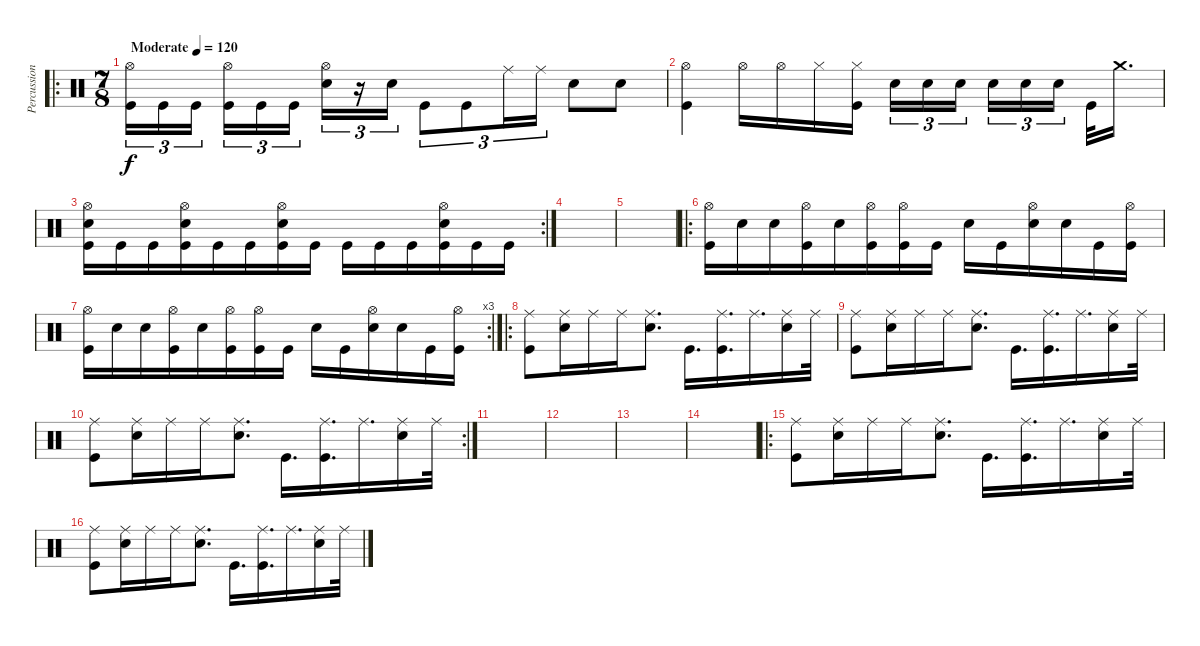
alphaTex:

\track ("Percussion" "Percussion") {instrument percussion}
\staff {score}
\articulation defaults
\ro
\ts (7 8)
\tempo (120 "Moderate")
\clef neutral
\ks c
("Hi-Hat (open)" "Kick (hit)").16{tu (3 2) dy f} "Kick (hit)".16{tu (3 2)} "Kick (hit)".16{tu (3 2)} ("Hi-Hat (open)" "Kick (hit)").16{tu (3 2)} "Kick (hit)".16{tu (3 2)} "Kick (hit)".16{tu (3 2)} ("Hi-Hat (open)" "Snare (hit) 2").16{tu (3 2)} r.16{tu (3 2)} "Snare (hit) 2".16{tu (3 2)} "Kick (hit)".8{tu (3 2)} "Kick (hit)".8{tu (3 2)} "Ride (middle)".16{tu (3 2)} "Ride (middle)".16{tu (3 2)} "Snare (hit) 2".8 "Snare (hit) 2".8 |
("Hi-Hat (open)" "Kick (hit)").4 "Hi-Hat (open)".16 "Hi-Hat (open)".16 "Hi-Hat (closed)".16 ("Hi-Hat (closed)" "Kick (hit)").16 "Snare (hit) 2".16{tu (3 2)} "Snare (hit) 2".16{tu (3 2)} "Snare (hit) 2".16{tu (3 2)} "Snare (hit) 2".16{tu (3 2)} "Snare (hit) 2".16{tu (3 2)} "Snare (hit) 2".16{tu (3 2)} "Kick (hit)".32 "Crash medium (hit)".16{d} |
\rc 2
("Hi-Hat (open)" "Snare (hit) 2" "Kick (hit)").16 "Kick (hit)".16 "Kick (hit)".16 ("Hi-Hat (open)" "Snare (hit) 2" "Kick (hit)").16 "Kick (hit)".16 "Kick (hit)".16 ("Hi-Hat (open)" "Snare (hit) 2" "Kick (hit)").16 "Kick (hit)".16 "Kick (hit)".16 "Kick (hit)".16 "Kick (hit)".16 ("Hi-Hat (open)" "Snare (hit) 2" "Kick (hit)").16 "Kick (hit)".16 "Kick (hit)".16 |
|
|
\ro
("Hi-Hat (open)" "Kick (hit)").16 "Snare (hit) 2".16 "Snare (hit) 2".16 ("Hi-Hat (open)" "Kick (hit)").16 "Snare (hit) 2".16 ("Hi-Hat (open)" "Kick (hit)").16 ("Hi-Hat (open)" "Kick (hit)").16 "Kick (hit)".16 "Snare (hit) 2".16 "Kick (hit)".16 ("Hi-Hat (open)" "Snare (hit) 2").16 "Snare (hit) 2".16 "Kick (hit)".16 ("Hi-Hat (open)" "Kick (hit)").16 |
\rc 3
("Hi-Hat (open)" "Kick (hit)").16 "Snare (hit) 2".16 "Snare (hit) 2".16 ("Hi-Hat (open)" "Kick (hit)").16 "Snare (hit) 2".16 ("Hi-Hat (open)" "Kick (hit)").16 ("Hi-Hat (open)" "Kick (hit)").16 "Kick (hit)".16 "Snare (hit) 2".16 "Kick (hit)".16 ("Hi-Hat (open)" "Snare (hit) 2").16 "Snare (hit) 2".16 "Kick (hit)".16 ("Hi-Hat (open)" "Kick (hit)").16 |
\ro
("Ride (middle)" "Kick (hit)").8 ("Ride (middle)" "Snare (hit) 2").16 "Ride (middle)".16 "Ride (middle)".16 ("Ride (middle)" "Snare (hit) 2").8{d} "Kick (hit)".16{d} ("Ride (middle)" "Kick (hit)").16{d} "Ride (middle)".16{d} ("Ride (middle)" "Snare (hit) 2").16 "Ride (middle)".32 |
("Ride (middle)" "Kick (hit)").8 ("Ride (middle)" "Snare (hit) 2").16 "Ride (middle)".16 "Ride (middle)".16 ("Ride (middle)" "Snare (hit) 2").8{d} "Kick (hit)".16{d} ("Ride (middle)" "Kick (hit)").16{d} "Ride (middle)".16{d} ("Ride (middle)" "Snare (hit) 2").16 "Ride (middle)".32 |
\rc 2
("Ride (middle)" "Kick (hit)").8 ("Ride (middle)" "Snare (hit) 2").16 "Ride (middle)".16 "Ride (middle)".16 ("Ride (middle)" "Snare (hit) 2").8{d} "Kick (hit)".16{d} ("Ride (middle)" "Kick (hit)").16{d} "Ride (middle)".16{d} ("Ride (middle)" "Snare (hit) 2").16 "Ride (middle)".32 |
|
|
|
|
\ro
("Ride (middle)" "Kick (hit)").8 ("Ride (middle)" "Snare (hit) 2").16 "Ride (middle)".16 "Ride (middle)".16 ("Ride (middle)" "Snare (hit) 2").8{d} "Kick (hit)".16{d} ("Ride (middle)" "Kick (hit)").16{d} "Ride (middle)".16{d} ("Ride (middle)" "Snare (hit) 2").16 "Ride (middle)".32 |
("Ride (middle)" "Kick (hit)").8 ("Ride (middle)" "Snare (hit) 2").16 "Ride (middle)".16 "Ride (middle)".16 ("Ride (middle)" "Snare (hit) 2").8{d} "Kick (hit)".16{d} ("Ride (middle)" "Kick (hit)").16{d} "Ride (middle)".16{d} ("Ride (middle)" "Snare (hit) 2").16 "Ride (middle)".32
